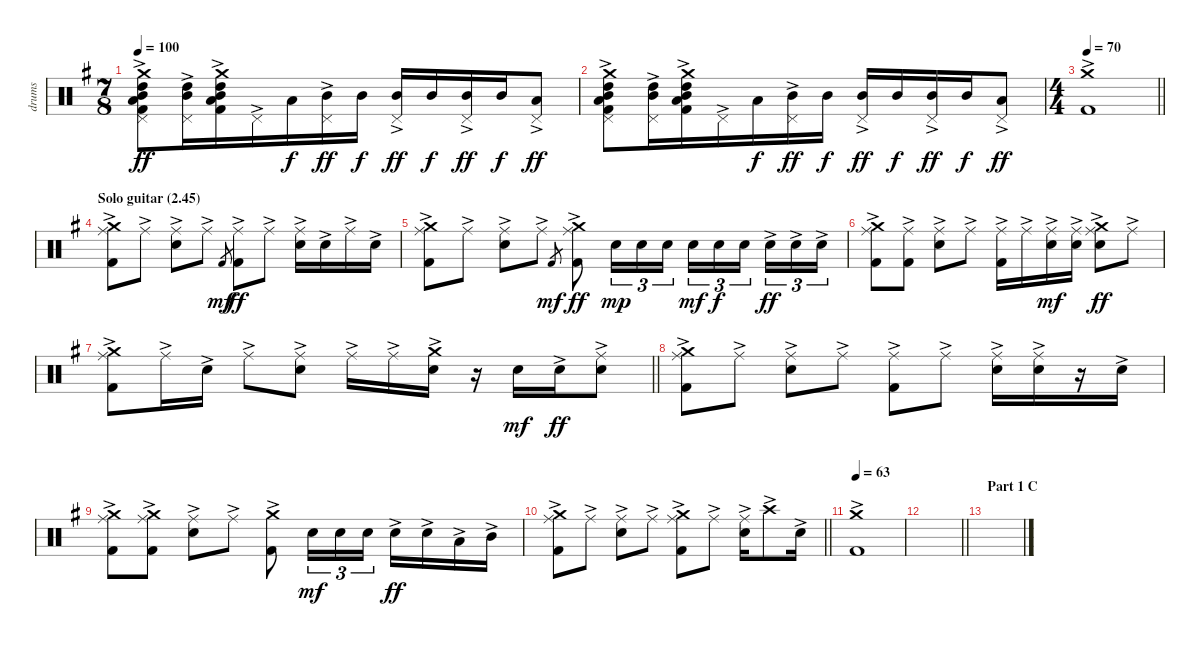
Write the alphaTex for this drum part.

\track ("drums" "drums") {instrument percussion}
\staff {score}
\articulation defaults
\ts (7 8)
\tempo 100
\clef neutral
\ks g
("Crash medium (hit)" "Pedal Hi-Hat (hit)"{ac} "High Tom (hit)" "Mid Tom (hit)"{ac} "Low Tom (hit)"{ac} "Kick (hit) 2"{ac}).8{dy ff} ("Pedal Hi-Hat (hit)"{ac} "High Tom (hit)" "Mid Tom (hit)").16 ("Crash medium (hit)"{ac} "High Tom (hit)" "Mid Tom (hit)"{ac} "Low Tom (hit)"{ac} "Kick (hit) 2"{ac}).16 "Pedal Hi-Hat (hit)"{ac}.16 "Low Tom (hit)".16{dy f} ("Pedal Hi-Hat (hit)"{ac} "Mid Tom (hit)").16{dy ff} "Mid Tom (hit)".16{dy f} ("Pedal Hi-Hat (hit)"{ac} "Mid Tom (hit)").16{dy ff} "Mid Tom (hit)".16{dy f} ("Pedal Hi-Hat (hit)"{ac} "Mid Tom (hit)").16{dy ff} "Mid Tom (hit)".16{dy f} ("Pedal Hi-Hat (hit)"{ac} "Low Tom (hit)").8{dy ff} |
("Crash medium (hit)" "Pedal Hi-Hat (hit)"{ac} "High Tom (hit)" "Mid Tom (hit)"{ac} "Low Tom (hit)"{ac} "Kick (hit) 2"{ac}).8 ("Pedal Hi-Hat (hit)"{ac} "High Tom (hit)" "Mid Tom (hit)").16 ("Crash medium (hit)"{ac} "High Tom (hit)" "Mid Tom (hit)"{ac} "Low Tom (hit)"{ac} "Kick (hit) 2"{ac}).16 "Pedal Hi-Hat (hit)"{ac}.16 "Low Tom (hit)".16{dy f} ("Pedal Hi-Hat (hit)"{ac} "Mid Tom (hit)").16{dy ff} "Mid Tom (hit)".16{dy f} ("Pedal Hi-Hat (hit)"{ac} "Mid Tom (hit)").16{dy ff} "Mid Tom (hit)".16{dy f} ("Pedal Hi-Hat (hit)"{ac} "Mid Tom (hit)").16{dy ff} "Mid Tom (hit)".16{dy f} ("Pedal Hi-Hat (hit)"{ac} "Low Tom (hit)").8{dy ff} |
\ts (4 4)
\tempo 70
\barLineRight lightlight
("Crash medium (hit)"{ac} "Kick (hit) 2"{ac}).1 |
\section ("" "Solo guitar (2.45)")
("Crash medium (hit)"{ac} "Ride (middle)"{ac} "Kick (hit) 2"{ac}).8 "Ride (middle)"{ac}.8 ("Ride (middle)"{ac} "Electric Snare (hit)"{ac}).8 "Ride (middle)"{ac}.8 "Kick (hit) 2".8{gr dy mf} ("Ride (middle)"{ac} "Kick (hit) 2"{ac}).8{dy ff} "Ride (middle)"{ac}.8 ("Ride (middle)"{ac} "Electric Snare (hit)"{ac}).16 "Electric Snare (hit)"{ac}.16 "Ride (middle)"{ac}.16 "Electric Snare (hit)"{ac}.16 |
("Crash medium (hit)"{ac} "Ride (middle)"{ac} "Kick (hit) 2"{ac}).8 "Ride (middle)"{ac}.8 ("Ride (middle)"{ac} "Electric Snare (hit)"{ac}).8 "Ride (middle)"{ac}.8 "Kick (hit) 2".8{gr dy mf} ("Crash medium (hit)"{ac} "Ride (middle)"{ac} "Kick (hit) 2"{ac}).8{dy ff} "Electric Snare (hit)".16{tu (3 2) dy mp} "Electric Snare (hit)".16{tu (3 2)} "Electric Snare (hit)".16{tu (3 2)} "Electric Snare (hit)".16{tu (3 2) dy mf} "Electric Snare (hit)".16{tu (3 2) dy f} "Electric Snare (hit)".16{tu (3 2) beam splitsecondary} "Electric Snare (hit)"{ac}.16{tu (3 2) dy ff} "Electric Snare (hit)"{ac}.16{tu (3 2)} "Electric Snare (hit)"{ac}.16{tu (3 2)} |
("Crash medium (hit)"{ac} "Ride (middle)"{ac} "Kick (hit) 2"{ac}).8 ("Ride (middle)"{ac} "Kick (hit) 2"{ac}).8 ("Ride (middle)"{ac} "Electric Snare (hit)"{ac}).8 "Ride (middle)"{ac}.8 ("Ride (middle)"{ac} "Kick (hit) 2"{ac}).16 "Ride (middle)"{ac}.16 ("Ride (middle)"{ac} "Electric Snare (hit)").16{dy mf} ("Ride (middle)"{ac} "Electric Snare (hit)").16 ("Crash medium (hit)"{ac} "Ride (middle)"{ac} "Electric Snare (hit)"{ac}).8{dy ff} "Ride (middle)"{ac}.8 |
\barLineRight lightlight
("Crash medium (hit)"{ac} "Ride (middle)"{ac} "Kick (hit) 2"{ac}).8 "Ride (middle)"{ac}.16 "Electric Snare (hit)"{ac}.16 "Ride (middle)"{ac}.8 ("Ride (middle)"{ac} "Electric Snare (hit)"{ac}).8 "Ride (middle)"{ac}.16 "Ride (middle)"{ac}.16 ("Crash medium (hit)"{ac} "Electric Snare (hit)"{ac}).16 r.16 "Electric Snare (hit)".16{dy mf} "Electric Snare (hit)"{ac}.16{dy ff} ("Ride (middle)"{ac} "Electric Snare (hit)"{ac}).8 |
("Crash medium (hit)"{ac} "Ride (middle)"{ac} "Kick (hit) 2"{ac}).8 "Ride (middle)"{ac}.8 ("Ride (middle)"{ac} "Electric Snare (hit)"{ac}).8 "Ride (middle)"{ac}.8 ("Ride (middle)"{ac} "Kick (hit) 2"{ac}).8 "Ride (middle)"{ac}.8 ("Ride (middle)"{ac} "Electric Snare (hit)"{ac}).16 ("Ride (middle)"{ac} "Electric Snare (hit)"{ac}).16 r.16 "Electric Snare (hit)"{ac}.16 |
("Crash medium (hit)"{ac} "Ride (middle)"{ac} "Kick (hit) 2"{ac}).8 ("Crash medium (hit)"{ac} "Ride (middle)"{ac} "Kick (hit) 2"{ac}).8 ("Ride (middle)"{ac} "Electric Snare (hit)"{ac}).8 "Ride (middle)"{ac}.8 ("Crash medium (hit)"{ac} "Kick (hit) 2"{ac}).8 "Electric Snare (hit)".16{tu (3 2) dy mf} "Electric Snare (hit)".16{tu (3 2)} "Electric Snare (hit)".16{tu (3 2)} "Electric Snare (hit)"{ac}.16{dy ff} "Electric Snare (hit)"{ac}.16 "Low Tom (hit)"{ac}.16 "Mid Tom (hit)"{ac}.16 |
\barLineRight lightlight
("Crash medium (hit)"{ac} "Ride (middle)"{ac} "Kick (hit) 2"{ac}).8 "Ride (middle)"{ac}.8 ("Ride (middle)"{ac} "Electric Snare (hit)"{ac}).8 "Ride (middle)"{ac}.8 ("Crash medium (hit)"{ac} "Ride (middle)"{ac} "Kick (hit) 2"{ac}).8 "Ride (middle)"{ac}.8 ("Ride (middle)"{ac} "Electric Snare (hit)"{ac}).16 "Crash high (hit)"{ac}.8 "Electric Snare (hit)"{ac}.16 |
\tempo 63
("Crash medium (hit)"{ac} "Kick (hit) 2"{ac}).1 |
\barLineRight lightlight
|
\section ("" "Part 1 C")
